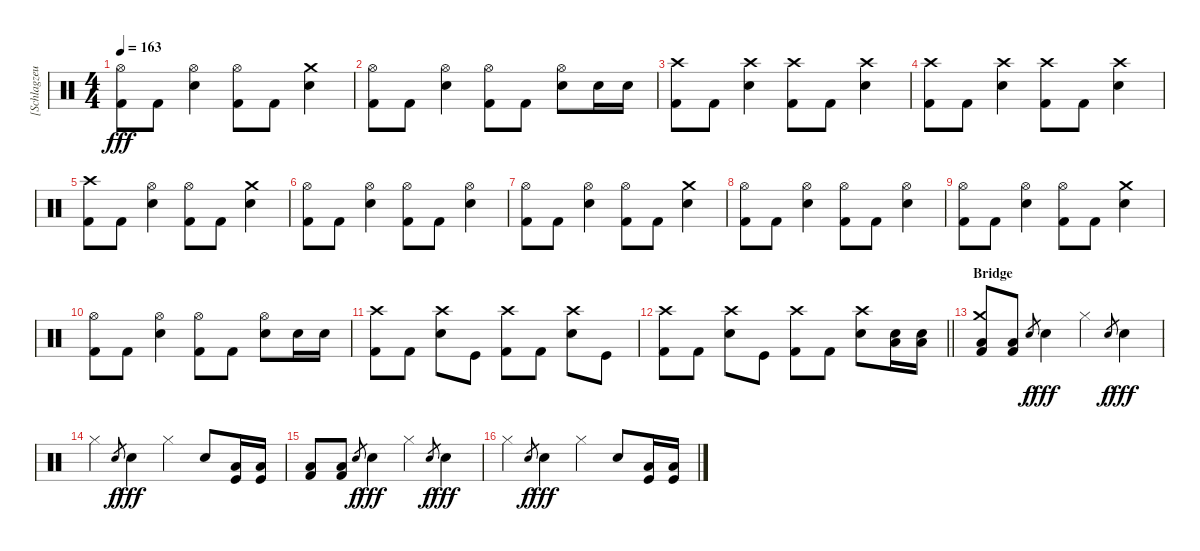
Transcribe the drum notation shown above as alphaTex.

\track ("[Schlagzeug]" "[Schlagzeu") {instrument percussion}
\staff {score}
\articulation defaults
\ts (4 4)
\tempo 163
\clef neutral
\ks c
("Hi-Hat (open)" "Kick (hit) 2").8{dy fff} "Kick (hit) 2".8 ("Hi-Hat (open)" "Electric Snare (hit)").4 ("Hi-Hat (open)" "Kick (hit) 2").8 "Kick (hit) 2".8 ("Crash medium (hit)" "Electric Snare (hit)").4 |
("Hi-Hat (open)" "Kick (hit) 2").8 "Kick (hit) 2".8 ("Hi-Hat (open)" "Electric Snare (hit)").4 ("Hi-Hat (open)" "Kick (hit) 2").8 "Kick (hit) 2".8 ("Hi-Hat (open)" "Electric Snare (hit)").8 "Electric Snare (hit)".16 "Electric Snare (hit)".16 |
("Crash high (hit)" "Kick (hit) 2").8 "Kick (hit) 2".8 ("Crash high (hit)" "Electric Snare (hit)").4 ("Crash high (hit)" "Kick (hit) 2").8 "Kick (hit) 2".8 ("Crash high (hit)" "Electric Snare (hit)").4 |
("Crash high (hit)" "Kick (hit) 2").8 "Kick (hit) 2".8 ("Crash high (hit)" "Electric Snare (hit)").4 ("Crash high (hit)" "Kick (hit) 2").8 "Kick (hit) 2".8 ("Crash high (hit)" "Electric Snare (hit)").4 |
("Crash high (hit)" "Kick (hit) 2").8 "Kick (hit) 2".8 ("Hi-Hat (open)" "Electric Snare (hit)").4 ("Hi-Hat (open)" "Kick (hit) 2").8 "Kick (hit) 2".8 ("Crash medium (hit)" "Electric Snare (hit)").4 |
("Hi-Hat (open)" "Kick (hit) 2").8 "Kick (hit) 2".8 ("Hi-Hat (open)" "Electric Snare (hit)").4 ("Hi-Hat (open)" "Kick (hit) 2").8 "Kick (hit) 2".8 ("Hi-Hat (open)" "Electric Snare (hit)").4 |
("Hi-Hat (open)" "Kick (hit) 2").8 "Kick (hit) 2".8 ("Hi-Hat (open)" "Electric Snare (hit)").4 ("Hi-Hat (open)" "Kick (hit) 2").8 "Kick (hit) 2".8 ("Crash medium (hit)" "Electric Snare (hit)").4 |
("Hi-Hat (open)" "Kick (hit) 2").8 "Kick (hit) 2".8 ("Hi-Hat (open)" "Electric Snare (hit)").4 ("Hi-Hat (open)" "Kick (hit) 2").8 "Kick (hit) 2".8 ("Hi-Hat (open)" "Electric Snare (hit)").4 |
("Hi-Hat (open)" "Kick (hit) 2").8 "Kick (hit) 2".8 ("Hi-Hat (open)" "Electric Snare (hit)").4 ("Hi-Hat (open)" "Kick (hit) 2").8 "Kick (hit) 2".8 ("Crash medium (hit)" "Electric Snare (hit)").4 |
("Hi-Hat (open)" "Kick (hit) 2").8 "Kick (hit) 2".8 ("Hi-Hat (open)" "Electric Snare (hit)").4 ("Hi-Hat (open)" "Kick (hit) 2").8 "Kick (hit) 2".8 ("Hi-Hat (open)" "Electric Snare (hit)").8 "Electric Snare (hit)".16 "Electric Snare (hit)".16 |
("Crash high (hit)" "Kick (hit) 2").8 "Kick (hit) 2".8 ("Crash high (hit)" "Electric Snare (hit)").8 "Kick (hit)".8 ("Crash high (hit)" "Kick (hit) 2").8 "Kick (hit) 2".8 ("Crash high (hit)" "Electric Snare (hit)").8 "Kick (hit)".8 |
\barLineRight lightlight
("Crash high (hit)" "Kick (hit) 2").8 "Kick (hit) 2".8 ("Crash high (hit)" "Electric Snare (hit)").8 "Kick (hit)".8 ("Crash high (hit)" "Kick (hit) 2").8 "Kick (hit) 2".8 ("Crash high (hit)" "Electric Snare (hit)").8 ("Electric Snare (hit)" "Low Floor Tom (hit)").16 ("Electric Snare (hit)" "Low Floor Tom (hit)").16 |
\section ("" "Bridge")
("Crash medium (hit)" "Low Floor Tom (hit)" "Kick (hit) 2").8 ("Low Floor Tom (hit)" "Kick (hit) 2").8 "Electric Snare (hit)".8{gr dy f} "Electric Snare (hit)".4{dy fff} "Hi-Hat (closed)".4 "Electric Snare (hit)".8{gr dy f} "Electric Snare (hit)".4{dy fff} |
"Hi-Hat (closed)".4 "Electric Snare (hit)".8{gr dy f} "Electric Snare (hit)".4{dy fff} "Hi-Hat (closed)".4 "Electric Snare (hit)".8 ("Kick (hit)" "Low Floor Tom (hit)").16 ("Kick (hit)" "Low Floor Tom (hit)").16 |
("Low Floor Tom (hit)" "Kick (hit) 2").8 ("Low Floor Tom (hit)" "Kick (hit) 2").8 "Electric Snare (hit)".8{gr dy f} "Electric Snare (hit)".4{dy fff} "Hi-Hat (closed)".4 "Electric Snare (hit)".8{gr dy f} "Electric Snare (hit)".4{dy fff} |
"Hi-Hat (closed)".4 "Electric Snare (hit)".8{gr dy f} "Electric Snare (hit)".4{dy fff} "Hi-Hat (closed)".4 "Electric Snare (hit)".8 ("Kick (hit)" "Low Floor Tom (hit)").16 ("Kick (hit)" "Low Floor Tom (hit)").16
